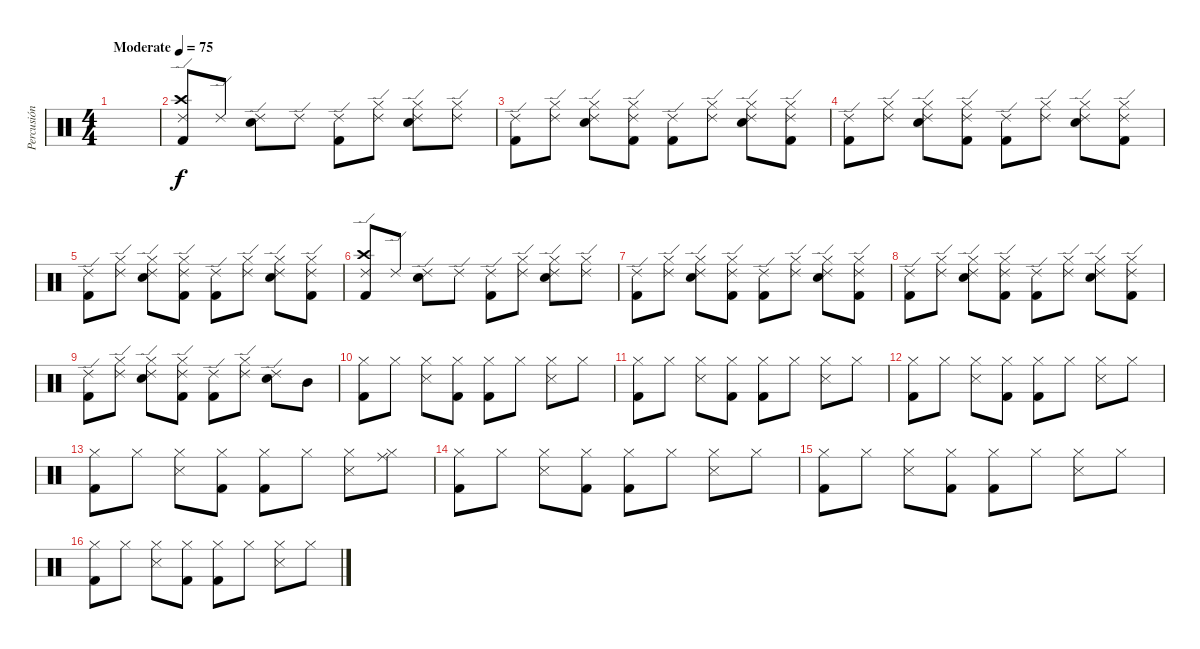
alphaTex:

\track ("Percusión" "Percusión") {instrument percussion}
\staff {score}
\articulation defaults
\ts (4 4)
\tempo (75 "Moderate")
\clef neutral
\ks c
|
("Ride (edge) 2" "Crash high (hit)" "Kick (hit) 2").8 "Ride (edge) 2".8 ("Ride (edge) 2" "Electric Snare (hit)").8 "Ride (edge) 2".8 ("Ride (edge) 2" "Kick (hit) 2").8 ("Ride (edge) 2" "Hi-Hat (closed)").8 ("Ride (edge) 2" "Electric Snare (hit)" "Hi-Hat (closed)").8 ("Ride (edge) 2" "Hi-Hat (closed)").8 |
("Ride (edge) 2" "Kick (hit) 2").8 ("Ride (edge) 2" "Hi-Hat (closed)").8 ("Ride (edge) 2" "Electric Snare (hit)" "Hi-Hat (closed)").8 ("Ride (edge) 2" "Hi-Hat (closed)" "Kick (hit) 2").8 ("Ride (edge) 2" "Kick (hit) 2").8 ("Ride (edge) 2" "Hi-Hat (closed)").8 ("Ride (edge) 2" "Electric Snare (hit)" "Hi-Hat (closed)").8 ("Ride (edge) 2" "Hi-Hat (closed)" "Kick (hit) 2").8 |
("Ride (edge) 2" "Kick (hit) 2").8 ("Ride (edge) 2" "Hi-Hat (closed)").8 ("Ride (edge) 2" "Electric Snare (hit)" "Hi-Hat (closed)").8 ("Ride (edge) 2" "Hi-Hat (closed)" "Kick (hit) 2").8 ("Ride (edge) 2" "Kick (hit) 2").8 ("Ride (edge) 2" "Hi-Hat (closed)").8 ("Ride (edge) 2" "Electric Snare (hit)" "Hi-Hat (closed)").8 ("Ride (edge) 2" "Hi-Hat (closed)" "Kick (hit) 2").8 |
("Ride (edge) 2" "Kick (hit) 2").8 ("Ride (edge) 2" "Hi-Hat (closed)").8 ("Ride (edge) 2" "Electric Snare (hit)" "Hi-Hat (closed)").8 ("Ride (edge) 2" "Hi-Hat (closed)" "Kick (hit) 2").8 ("Ride (edge) 2" "Kick (hit) 2").8 ("Ride (edge) 2" "Hi-Hat (closed)").8 ("Ride (edge) 2" "Electric Snare (hit)" "Hi-Hat (closed)").8 ("Ride (edge) 2" "Hi-Hat (closed)" "Kick (hit) 2").8 |
("Ride (edge) 2" "Crash high (hit)" "Kick (hit) 2").8 "Ride (edge) 2".8 ("Ride (edge) 2" "Electric Snare (hit)").8 "Ride (edge) 2".8 ("Ride (edge) 2" "Kick (hit) 2").8 ("Ride (edge) 2" "Hi-Hat (closed)").8 ("Ride (edge) 2" "Electric Snare (hit)" "Hi-Hat (closed)").8 ("Ride (edge) 2" "Hi-Hat (closed)").8 |
("Ride (edge) 2" "Kick (hit) 2").8 ("Ride (edge) 2" "Hi-Hat (closed)").8 ("Ride (edge) 2" "Electric Snare (hit)" "Hi-Hat (closed)").8 ("Ride (edge) 2" "Hi-Hat (closed)" "Kick (hit) 2").8 ("Ride (edge) 2" "Kick (hit) 2").8 ("Ride (edge) 2" "Hi-Hat (closed)").8 ("Ride (edge) 2" "Electric Snare (hit)" "Hi-Hat (closed)").8 ("Ride (edge) 2" "Hi-Hat (closed)" "Kick (hit) 2").8 |
("Ride (edge) 2" "Kick (hit) 2").8 ("Ride (edge) 2" "Hi-Hat (closed)").8 ("Ride (edge) 2" "Electric Snare (hit)" "Hi-Hat (closed)").8 ("Ride (edge) 2" "Hi-Hat (closed)" "Kick (hit) 2").8 ("Ride (edge) 2" "Kick (hit) 2").8 ("Ride (edge) 2" "Hi-Hat (closed)").8 ("Ride (edge) 2" "Electric Snare (hit)" "Hi-Hat (closed)").8 ("Ride (edge) 2" "Hi-Hat (closed)" "Kick (hit) 2").8 |
("Ride (edge) 2" "Kick (hit) 2").8 ("Ride (edge) 2" "Hi-Hat (closed)").8 ("Ride (edge) 2" "Electric Snare (hit)" "Hi-Hat (closed)").8 ("Ride (edge) 2" "Hi-Hat (closed)" "Kick (hit) 2").8 ("Ride (edge) 2" "Kick (hit) 2").8 ("Ride (edge) 2" "Hi-Hat (closed)").8 ("Ride (edge) 2" "Electric Snare (hit)").8 "Mid Tom (hit)".8 |
("Hi-Hat (closed)" "Kick (hit) 2").8 "Hi-Hat (closed)".8 ("Hi-Hat (closed)" "Snare (side stick) 3").8 ("Hi-Hat (closed)" "Kick (hit) 2").8 ("Hi-Hat (closed)" "Kick (hit) 2").8 "Hi-Hat (closed)".8 ("Hi-Hat (closed)" "Snare (side stick) 3").8 "Hi-Hat (closed)".8 |
("Hi-Hat (closed)" "Kick (hit) 2").8 "Hi-Hat (closed)".8 ("Hi-Hat (closed)" "Snare (side stick) 3").8 ("Hi-Hat (closed)" "Kick (hit) 2").8 ("Hi-Hat (closed)" "Kick (hit) 2").8 "Hi-Hat (closed)".8 ("Hi-Hat (closed)" "Snare (side stick) 3").8 "Hi-Hat (closed)".8 |
("Hi-Hat (closed)" "Kick (hit) 2").8 "Hi-Hat (closed)".8 ("Hi-Hat (closed)" "Snare (side stick) 3").8 ("Hi-Hat (closed)" "Kick (hit) 2").8 ("Hi-Hat (closed)" "Kick (hit) 2").8 "Hi-Hat (closed)".8 ("Hi-Hat (closed)" "Snare (side stick) 3").8 "Hi-Hat (closed)".8 |
("Hi-Hat (closed)" "Kick (hit) 2").8 "Hi-Hat (closed)".8 ("Hi-Hat (closed)" "Snare (side stick) 3").8 ("Hi-Hat (closed)" "Kick (hit) 2").8 ("Hi-Hat (closed)" "Kick (hit) 2").8 "Hi-Hat (closed)".8 ("Hi-Hat (closed)" "Snare (side stick) 3").8 ("Hi-Hat (closed)" "Ride (middle)").8 |
("Hi-Hat (closed)" "Kick (hit) 2").8 "Hi-Hat (closed)".8 ("Hi-Hat (closed)" "Snare (side stick) 3").8 ("Hi-Hat (closed)" "Kick (hit) 2").8 ("Hi-Hat (closed)" "Kick (hit) 2").8 "Hi-Hat (closed)".8 ("Hi-Hat (closed)" "Snare (side stick) 3").8 "Hi-Hat (closed)".8 |
("Hi-Hat (closed)" "Kick (hit) 2").8 "Hi-Hat (closed)".8 ("Hi-Hat (closed)" "Snare (side stick) 3").8 ("Hi-Hat (closed)" "Kick (hit) 2").8 ("Hi-Hat (closed)" "Kick (hit) 2").8 "Hi-Hat (closed)".8 ("Hi-Hat (closed)" "Snare (side stick) 3").8 "Hi-Hat (closed)".8 |
("Hi-Hat (closed)" "Kick (hit) 2").8 "Hi-Hat (closed)".8 ("Hi-Hat (closed)" "Snare (side stick) 3").8 ("Hi-Hat (closed)" "Kick (hit) 2").8 ("Hi-Hat (closed)" "Kick (hit) 2").8 "Hi-Hat (closed)".8 ("Hi-Hat (closed)" "Snare (side stick) 3").8 "Hi-Hat (closed)".8
